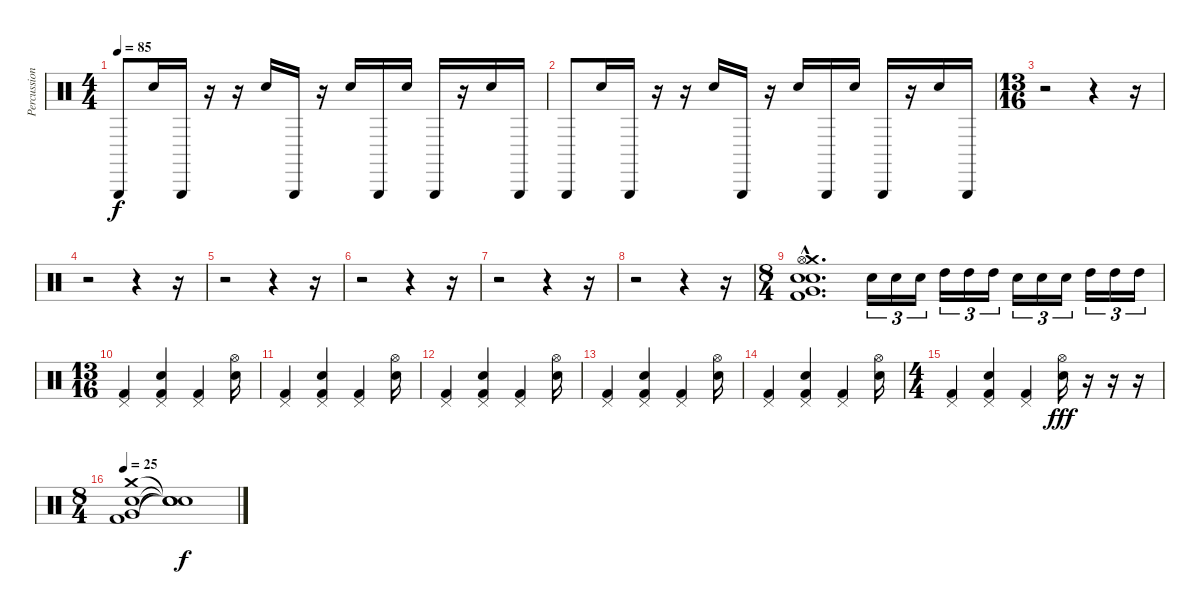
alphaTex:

\track ("Percussion" "Percussion") {instrument percussion}
\staff {score}
\articulation defaults
\ts (4 4)
\tempo 85
\clef neutral
\ks c "Triangle (hit)".8{dy f} "Metronome (bell)".16 "Triangle (hit)".16
r.16 r.16 "Metronome (bell)".16 "Triangle (hit)".16 r.16 "Metronome (bell)".16 "Triangle (hit)".16 "Metronome (bell)".16 "Triangle (hit)".16 r.16 "Metronome (bell)".16 "Triangle (hit)".16 |
"Triangle (hit)".8 "Metronome (bell)".16 "Triangle (hit)".16 r.16 r.16 "Metronome (bell)".16 "Triangle (hit)".16 r.16 "Metronome (bell)".16 "Triangle (hit)".16 "Metronome (bell)".16 "Triangle (hit)".16 r.16 "Metronome (bell)".16 "Triangle (hit)".16 |
\ts (13 16)
r.2 r.4 r.16 |
r.2 r.4 r.16 |
r.2 r.4 r.16 |
r.2 r.4 r.16 |
r.2 r.4 r.16 |
r.2 r.4 r.16 |
\ts (8 4)
("Crash medium (hit)"{hac} "Hi-Hat (open)"{hac} "Snare (hit) 2"{hac} "Electric Snare (hit)"{hac} "Very Low Tom (hit)"{hac} "Kick (hit) 2"{hac}).1{d} "Electric Snare (hit)".16{tu (3 2)} "Electric Snare (hit)".16{tu (3 2)} "Electric Snare (hit)".16{tu (3 2)} "High Tom (hit)".16{tu (3 2)} "High Tom (hit)".16{tu (3 2)} "High Tom (hit)".16{tu (3 2)} "Electric Snare (hit)".16{tu (3 2)} "Electric Snare (hit)".16{tu (3 2)} "Electric Snare (hit)".16{tu (3 2)} "High Tom (hit)".16{tu (3 2)} "High Tom (hit)".16{tu (3 2)} "High Tom (hit)".16{tu (3 2)} |
\ts (13 16)
("Pedal Hi-Hat (hit)" "Kick (hit) 2").4 ("Pedal Hi-Hat (hit)" "Electric Snare (hit)" "Kick (hit) 2").4 ("Pedal Hi-Hat (hit)" "Kick (hit) 2").4 ("Hi-Hat (open)" "Electric Snare (hit)").16 |
("Pedal Hi-Hat (hit)" "Kick (hit) 2").4 ("Pedal Hi-Hat (hit)" "Electric Snare (hit)" "Kick (hit) 2").4 ("Pedal Hi-Hat (hit)" "Kick (hit) 2").4 ("Hi-Hat (open)" "Electric Snare (hit)").16 |
("Pedal Hi-Hat (hit)" "Kick (hit) 2").4 ("Pedal Hi-Hat (hit)" "Electric Snare (hit)" "Kick (hit) 2").4 ("Pedal Hi-Hat (hit)" "Kick (hit) 2").4 ("Hi-Hat (open)" "Electric Snare (hit)").16 |
("Pedal Hi-Hat (hit)" "Kick (hit) 2").4 ("Pedal Hi-Hat (hit)" "Electric Snare (hit)" "Kick (hit) 2").4 ("Pedal Hi-Hat (hit)" "Kick (hit) 2").4 ("Hi-Hat (open)" "Electric Snare (hit)").16 |
("Pedal Hi-Hat (hit)" "Kick (hit) 2").4 ("Pedal Hi-Hat (hit)" "Electric Snare (hit)" "Kick (hit) 2").4 ("Pedal Hi-Hat (hit)" "Kick (hit) 2").4 ("Hi-Hat (open)" "Electric Snare (hit)").16 |
\ts (4 4)
("Pedal Hi-Hat (hit)" "Kick (hit) 2").4 ("Pedal Hi-Hat (hit)" "Electric Snare (hit)" "Kick (hit) 2").4 ("Pedal Hi-Hat (hit)" "Kick (hit) 2").4 ("Hi-Hat (open)" "Electric Snare (hit)").16{dy fff} r.16{volume 0} r.16 r.16 |
\ts (8 4)
\tempo 25
("Crash medium (hit)" "Electric Snare (hit)" "Very Low Tom (hit)" "Kick (hit) 2").1{volume 16} ("Snare (hit)"{t} "Snare (hit)"{t} "Snare (hit)"{t} "Snare (hit)"{t}).1{dy f}
